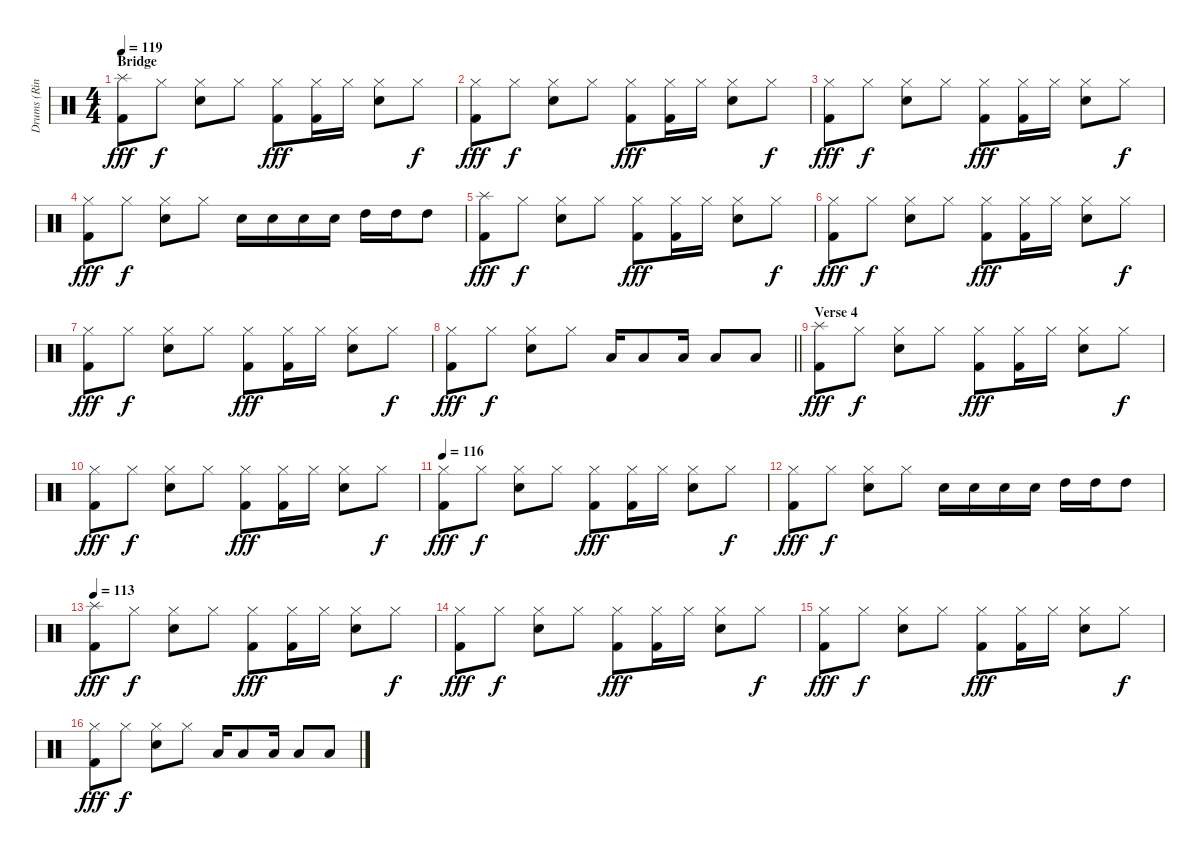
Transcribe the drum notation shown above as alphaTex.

\track ("Drums (Ringo Starr)" "Drums (Rin") {instrument percussion}
\staff {score}
\articulation defaults
\ts (4 4)
\section ("" "Bridge")
\tempo 119
\clef neutral
\ks c
("Splash (hit)" "Kick (hit) 2").8{dy fff} "Hi-Hat (closed)".8{dy f} ("Hi-Hat (closed)" "Snare (hit) 2").8 "Hi-Hat (closed)".8 ("Hi-Hat (closed)" "Kick (hit) 2").8{dy fff} ("Hi-Hat (closed)" "Kick (hit) 2").16 "Hi-Hat (closed)".16 ("Hi-Hat (closed)" "Snare (hit) 2").8 "Hi-Hat (closed)".8{dy f} |
("Hi-Hat (closed)" "Kick (hit) 2").8{dy fff} "Hi-Hat (closed)".8{dy f} ("Hi-Hat (closed)" "Snare (hit) 2").8 "Hi-Hat (closed)".8 ("Hi-Hat (closed)" "Kick (hit) 2").8{dy fff} ("Hi-Hat (closed)" "Kick (hit) 2").16 "Hi-Hat (closed)".16 ("Hi-Hat (closed)" "Snare (hit) 2").8 "Hi-Hat (closed)".8{dy f} |
("Hi-Hat (closed)" "Kick (hit) 2").8{dy fff} "Hi-Hat (closed)".8{dy f} ("Hi-Hat (closed)" "Snare (hit) 2").8 "Hi-Hat (closed)".8 ("Hi-Hat (closed)" "Kick (hit) 2").8{dy fff} ("Hi-Hat (closed)" "Kick (hit) 2").16 "Hi-Hat (closed)".16 ("Hi-Hat (closed)" "Snare (hit) 2").8 "Hi-Hat (closed)".8{dy f} |
("Hi-Hat (closed)" "Kick (hit) 2").8{dy fff} "Hi-Hat (closed)".8{dy f} ("Hi-Hat (closed)" "Snare (hit) 2").8 "Hi-Hat (closed)".8 "Snare (hit) 2".16 "Snare (hit) 2".16 "Snare (hit) 2".16 "Snare (hit) 2".16 "High Tom (hit)".16 "High Tom (hit)".16 "High Tom (hit)".8 |
("Splash (hit)" "Kick (hit) 2").8{dy fff} "Hi-Hat (closed)".8{dy f} ("Hi-Hat (closed)" "Snare (hit) 2").8 "Hi-Hat (closed)".8 ("Hi-Hat (closed)" "Kick (hit) 2").8{dy fff} ("Hi-Hat (closed)" "Kick (hit) 2").16 "Hi-Hat (closed)".16 ("Hi-Hat (closed)" "Snare (hit) 2").8 "Hi-Hat (closed)".8{dy f} |
("Hi-Hat (closed)" "Kick (hit) 2").8{dy fff} "Hi-Hat (closed)".8{dy f} ("Hi-Hat (closed)" "Snare (hit) 2").8 "Hi-Hat (closed)".8 ("Hi-Hat (closed)" "Kick (hit) 2").8{dy fff} ("Hi-Hat (closed)" "Kick (hit) 2").16 "Hi-Hat (closed)".16 ("Hi-Hat (closed)" "Snare (hit) 2").8 "Hi-Hat (closed)".8{dy f} |
("Hi-Hat (closed)" "Kick (hit) 2").8{dy fff} "Hi-Hat (closed)".8{dy f} ("Hi-Hat (closed)" "Snare (hit) 2").8 "Hi-Hat (closed)".8 ("Hi-Hat (closed)" "Kick (hit) 2").8{dy fff} ("Hi-Hat (closed)" "Kick (hit) 2").16 "Hi-Hat (closed)".16 ("Hi-Hat (closed)" "Snare (hit) 2").8 "Hi-Hat (closed)".8{dy f} |
\barLineRight lightlight
("Hi-Hat (closed)" "Kick (hit) 2").8{dy fff} "Hi-Hat (closed)".8{dy f} ("Hi-Hat (closed)" "Snare (hit) 2").8 "Hi-Hat (closed)".8 "Low Floor Tom (hit)".16 "Low Floor Tom (hit)".8 "Low Floor Tom (hit)".16 "Low Floor Tom (hit)".8 "Low Floor Tom (hit)".8 |
\section ("" "Verse 4")
("Splash (hit)" "Kick (hit) 2").8{dy fff} "Hi-Hat (closed)".8{dy f} ("Hi-Hat (closed)" "Snare (hit) 2").8 "Hi-Hat (closed)".8 ("Hi-Hat (closed)" "Kick (hit) 2").8{dy fff} ("Hi-Hat (closed)" "Kick (hit) 2").16 "Hi-Hat (closed)".16 ("Hi-Hat (closed)" "Snare (hit) 2").8 "Hi-Hat (closed)".8{dy f} |
("Hi-Hat (closed)" "Kick (hit) 2").8{dy fff} "Hi-Hat (closed)".8{dy f} ("Hi-Hat (closed)" "Snare (hit) 2").8 "Hi-Hat (closed)".8 ("Hi-Hat (closed)" "Kick (hit) 2").8{dy fff} ("Hi-Hat (closed)" "Kick (hit) 2").16 "Hi-Hat (closed)".16 ("Hi-Hat (closed)" "Snare (hit) 2").8 "Hi-Hat (closed)".8{dy f} |
\tempo 116
("Hi-Hat (closed)" "Kick (hit) 2").8{dy fff} "Hi-Hat (closed)".8{dy f} ("Hi-Hat (closed)" "Snare (hit) 2").8 "Hi-Hat (closed)".8 ("Hi-Hat (closed)" "Kick (hit) 2").8{dy fff} ("Hi-Hat (closed)" "Kick (hit) 2").16 "Hi-Hat (closed)".16 ("Hi-Hat (closed)" "Snare (hit) 2").8 "Hi-Hat (closed)".8{dy f} |
("Hi-Hat (closed)" "Kick (hit) 2").8{dy fff} "Hi-Hat (closed)".8{dy f} ("Hi-Hat (closed)" "Snare (hit) 2").8 "Hi-Hat (closed)".8 "Snare (hit) 2".16 "Snare (hit) 2".16 "Snare (hit) 2".16 "Snare (hit) 2".16 "High Tom (hit)".16 "High Tom (hit)".16 "High Tom (hit)".8 |
\tempo 113
("Splash (hit)" "Kick (hit) 2").8{dy fff} "Hi-Hat (closed)".8{dy f} ("Hi-Hat (closed)" "Snare (hit) 2").8 "Hi-Hat (closed)".8 ("Hi-Hat (closed)" "Kick (hit) 2").8{dy fff} ("Hi-Hat (closed)" "Kick (hit) 2").16 "Hi-Hat (closed)".16 ("Hi-Hat (closed)" "Snare (hit) 2").8 "Hi-Hat (closed)".8{dy f} |
("Hi-Hat (closed)" "Kick (hit) 2").8{dy fff} "Hi-Hat (closed)".8{dy f} ("Hi-Hat (closed)" "Snare (hit) 2").8 "Hi-Hat (closed)".8 ("Hi-Hat (closed)" "Kick (hit) 2").8{dy fff} ("Hi-Hat (closed)" "Kick (hit) 2").16 "Hi-Hat (closed)".16 ("Hi-Hat (closed)" "Snare (hit) 2").8 "Hi-Hat (closed)".8{dy f} |
("Hi-Hat (closed)" "Kick (hit) 2").8{dy fff} "Hi-Hat (closed)".8{dy f} ("Hi-Hat (closed)" "Snare (hit) 2").8 "Hi-Hat (closed)".8 ("Hi-Hat (closed)" "Kick (hit) 2").8{dy fff} ("Hi-Hat (closed)" "Kick (hit) 2").16 "Hi-Hat (closed)".16 ("Hi-Hat (closed)" "Snare (hit) 2").8 "Hi-Hat (closed)".8{dy f} |
("Hi-Hat (closed)" "Kick (hit) 2").8{dy fff} "Hi-Hat (closed)".8{dy f} ("Hi-Hat (closed)" "Snare (hit) 2").8 "Hi-Hat (closed)".8 "Low Floor Tom (hit)".16 "Low Floor Tom (hit)".8 "Low Floor Tom (hit)".16 "Low Floor Tom (hit)".8 "Low Floor Tom (hit)".8
